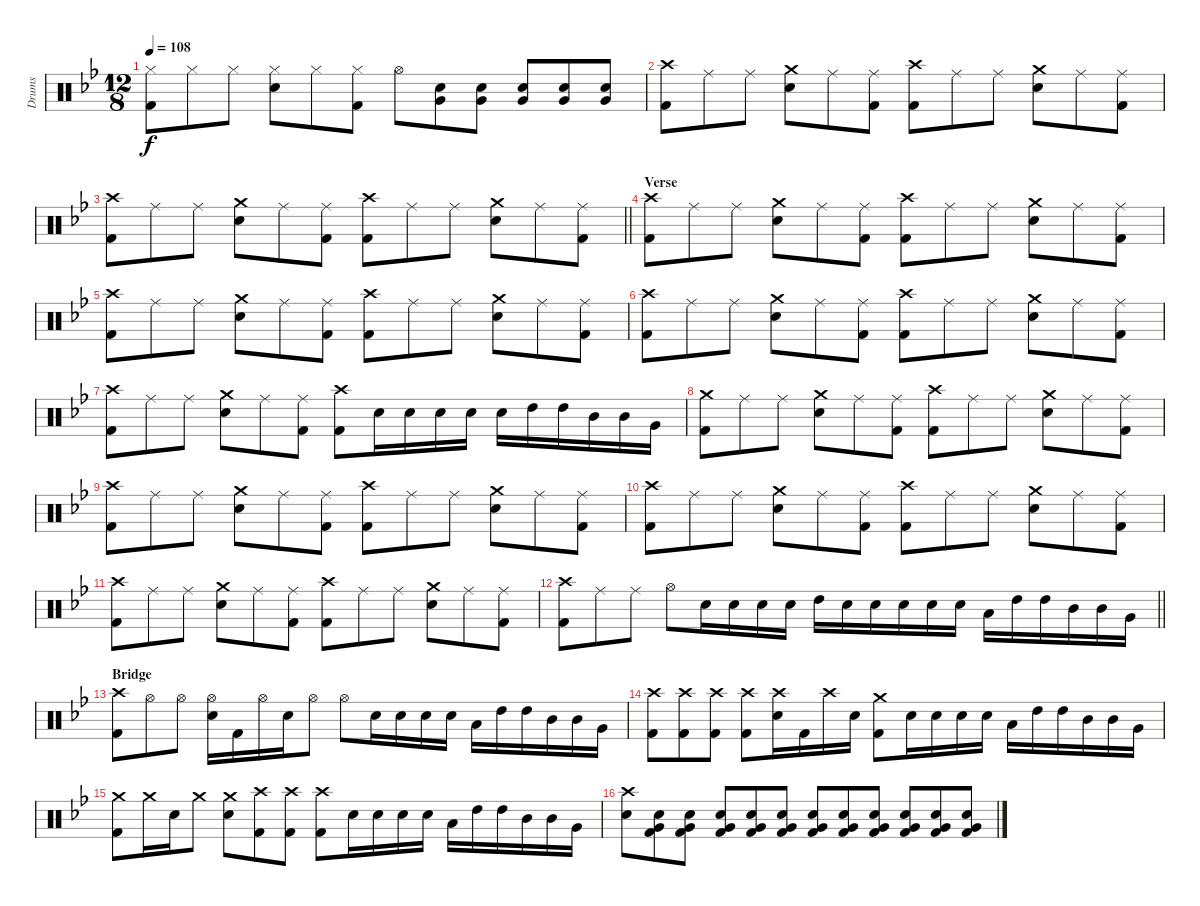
\track ("Drums" "Drums") {instrument percussion}
\staff {score}
\articulation defaults
\ts (12 8)
\tempo 108
\clef neutral
\ks gminor
("Hi-Hat (closed)" "Kick (hit) 2").8{dy f} "Hi-Hat (closed)".8 "Hi-Hat (closed)".8 ("Hi-Hat (closed)" "Electric Snare (hit)").8 "Hi-Hat (closed)".8 ("Hi-Hat (closed)" "Kick (hit) 2").8 "Hi-Hat (open)".8 ("Electric Snare (hit)" "Very Low Tom (hit)").8 ("Electric Snare (hit)" "Very Low Tom (hit)").8 ("Electric Snare (hit)" "Very Low Tom (hit)").8 ("Electric Snare (hit)" "Very Low Tom (hit)").8 ("Electric Snare (hit)" "Very Low Tom (hit)").8 |
("Crash high (hit)" "Kick (hit) 2").8 "Ride (middle)".8 "Ride (middle)".8 ("Crash medium (hit)" "Electric Snare (hit)").8 "Ride (middle)".8 ("Ride (middle)" "Kick (hit) 2").8 ("Crash high (hit)" "Kick (hit) 2").8 "Ride (middle)".8 "Ride (middle)".8 ("Crash medium (hit)" "Electric Snare (hit)").8 "Ride (middle)".8 ("Ride (middle)" "Kick (hit) 2").8 |
\barLineRight lightlight
("Crash high (hit)" "Kick (hit) 2").8 "Ride (middle)".8 "Ride (middle)".8 ("Crash medium (hit)" "Electric Snare (hit)").8 "Ride (middle)".8 ("Ride (middle)" "Kick (hit) 2").8 ("Crash high (hit)" "Kick (hit) 2").8 "Ride (middle)".8 "Ride (middle)".8 ("Crash medium (hit)" "Electric Snare (hit)").8 "Ride (middle)".8 ("Ride (middle)" "Kick (hit) 2").8 |
\section ("" "Verse")
("Crash high (hit)" "Kick (hit) 2").8 "Ride (middle)".8 "Ride (middle)".8 ("Crash medium (hit)" "Electric Snare (hit)").8 "Ride (middle)".8 ("Ride (middle)" "Kick (hit) 2").8 ("Crash high (hit)" "Kick (hit) 2").8 "Ride (middle)".8 "Ride (middle)".8 ("Crash medium (hit)" "Electric Snare (hit)").8 "Ride (middle)".8 ("Ride (middle)" "Kick (hit) 2").8 |
("Crash high (hit)" "Kick (hit) 2").8 "Ride (middle)".8 "Ride (middle)".8 ("Crash medium (hit)" "Electric Snare (hit)").8 "Ride (middle)".8 ("Ride (middle)" "Kick (hit) 2").8 ("Crash high (hit)" "Kick (hit) 2").8 "Ride (middle)".8 "Ride (middle)".8 ("Crash medium (hit)" "Electric Snare (hit)").8 "Ride (middle)".8 ("Ride (middle)" "Kick (hit) 2").8 |
("Crash high (hit)" "Kick (hit) 2").8 "Ride (middle)".8 "Ride (middle)".8 ("Crash medium (hit)" "Electric Snare (hit)").8 "Ride (middle)".8 ("Ride (middle)" "Kick (hit) 2").8 ("Crash high (hit)" "Kick (hit) 2").8 "Ride (middle)".8 "Ride (middle)".8 ("Crash medium (hit)" "Electric Snare (hit)").8 "Ride (middle)".8 ("Ride (middle)" "Kick (hit) 2").8 |
("Crash high (hit)" "Kick (hit) 2").8 "Ride (middle)".8 "Ride (middle)".8 ("Crash medium (hit)" "Electric Snare (hit)").8 "Ride (middle)".8 ("Ride (middle)" "Kick (hit) 2").8 ("Crash high (hit)" "Kick (hit) 2").8 "Electric Snare (hit)".16 "Electric Snare (hit)".16 "Electric Snare (hit)".16 "Electric Snare (hit)".16 "Electric Snare (hit)".16 "High Tom (hit)".16 "High Tom (hit)".16 "Mid Tom (hit)".16 "Mid Tom (hit)".16 "Very Low Tom (hit)".16 |
("Crash medium (hit)" "Kick (hit) 2").8 "Ride (middle)".8 "Ride (middle)".8 ("Crash medium (hit)" "Electric Snare (hit)").8 "Ride (middle)".8 ("Ride (middle)" "Kick (hit) 2").8 ("Crash high (hit)" "Kick (hit) 2").8 "Ride (middle)".8 "Ride (middle)".8 ("Crash medium (hit)" "Electric Snare (hit)").8 "Ride (middle)".8 ("Ride (middle)" "Kick (hit) 2").8 |
("Crash high (hit)" "Kick (hit) 2").8 "Ride (middle)".8 "Ride (middle)".8 ("Crash medium (hit)" "Electric Snare (hit)").8 "Ride (middle)".8 ("Ride (middle)" "Kick (hit) 2").8 ("Crash high (hit)" "Kick (hit) 2").8 "Ride (middle)".8 "Ride (middle)".8 ("Crash medium (hit)" "Electric Snare (hit)").8 "Ride (middle)".8 ("Ride (middle)" "Kick (hit) 2").8 |
("Crash high (hit)" "Kick (hit) 2").8 "Ride (middle)".8 "Ride (middle)".8 ("Crash medium (hit)" "Electric Snare (hit)").8 "Ride (middle)".8 ("Ride (middle)" "Kick (hit) 2").8 ("Crash high (hit)" "Kick (hit) 2").8 "Ride (middle)".8 "Ride (middle)".8 ("Crash medium (hit)" "Electric Snare (hit)").8 "Ride (middle)".8 ("Ride (middle)" "Kick (hit) 2").8 |
("Crash high (hit)" "Kick (hit) 2").8 "Ride (middle)".8 "Ride (middle)".8 ("Crash medium (hit)" "Electric Snare (hit)").8 "Ride (middle)".8 ("Ride (middle)" "Kick (hit) 2").8 ("Crash high (hit)" "Kick (hit) 2").8 "Ride (middle)".8 "Ride (middle)".8 ("Crash medium (hit)" "Electric Snare (hit)").8 "Ride (middle)".8 ("Ride (middle)" "Kick (hit) 2").8 |
\barLineRight lightlight
("Crash high (hit)" "Kick (hit) 2").8 "Ride (middle)".8 "Ride (middle)".8 "Hi-Hat (open)".8 "Electric Snare (hit)".16 "Electric Snare (hit)".16 "Electric Snare (hit)".16 "Electric Snare (hit)".16 "High Tom (hit)".16 "Electric Snare (hit)".16 "Electric Snare (hit)".16 "Electric Snare (hit)".16 "Electric Snare (hit)".16 "Electric Snare (hit)".16 "Low Tom (hit)".16 "High Tom (hit)".16 "High Tom (hit)".16 "Mid Tom (hit)".16 "Mid Tom (hit)".16 "Very Low Tom (hit)".16 |
\section ("" "Bridge")
("Crash high (hit)" "Kick (hit) 2").8 "Hi-Hat (open)".8 "Hi-Hat (open)".8 ("Hi-Hat (open)" "Electric Snare (hit)").16 "Kick (hit) 2".16 "Hi-Hat (open)".16 "Electric Snare (hit)".16 "Hi-Hat (open)".8 "Hi-Hat (open)".8 "Electric Snare (hit)".16 "Electric Snare (hit)".16 "Electric Snare (hit)".16 "Electric Snare (hit)".16 "Low Tom (hit)".16 "High Tom (hit)".16 "High Tom (hit)".16 "Mid Tom (hit)".16 "Mid Tom (hit)".16 "Very Low Tom (hit)".16 |
("Crash high (hit)" "Kick (hit) 2").8 ("Crash high (hit)" "Kick (hit) 2").8 ("Crash high (hit)" "Kick (hit) 2").8 ("Crash high (hit)" "Kick (hit) 2").8 ("Crash high (hit)" "Electric Snare (hit)").16 "Kick (hit) 2".16 "Crash high (hit)".16 "Electric Snare (hit)".16 ("Crash medium (hit)" "Kick (hit) 2").8 "Electric Snare (hit)".16 "Electric Snare (hit)".16 "Electric Snare (hit)".16 "Electric Snare (hit)".16 "Low Tom (hit)".16 "High Tom (hit)".16 "High Tom (hit)".16 "Mid Tom (hit)".16 "Mid Tom (hit)".16 "Very Low Tom (hit)".16 |
("Crash medium (hit)" "Kick (hit) 2").8 "Crash medium (hit)".16 "Electric Snare (hit)".16 "Crash medium (hit)".8 ("Crash medium (hit)" "Electric Snare (hit)").8 ("Crash high (hit)" "Kick (hit) 2").8 ("Crash high (hit)" "Kick (hit) 2").8 ("Crash high (hit)" "Kick (hit) 2").8 "Electric Snare (hit)".16 "Electric Snare (hit)".16 "Electric Snare (hit)".16 "Electric Snare (hit)".16 "Low Tom (hit)".16 "High Tom (hit)".16 "High Tom (hit)".16 "Mid Tom (hit)".16 "Mid Tom (hit)".16 "Very Low Tom (hit)".16 |
("Crash high (hit)" "Electric Snare (hit)").8 ("Electric Snare (hit)" "Very Low Tom (hit)" "Kick (hit) 2").8 ("Electric Snare (hit)" "Very Low Tom (hit)" "Kick (hit) 2").8 ("Electric Snare (hit)" "Very Low Tom (hit)" "Kick (hit) 2").8 ("Electric Snare (hit)" "Very Low Tom (hit)" "Kick (hit) 2").8 ("Electric Snare (hit)" "Very Low Tom (hit)" "Kick (hit) 2").8 ("Electric Snare (hit)" "Very Low Tom (hit)" "Kick (hit) 2").8 ("Electric Snare (hit)" "Very Low Tom (hit)" "Kick (hit) 2").8 ("Electric Snare (hit)" "Very Low Tom (hit)" "Kick (hit) 2").8 ("Electric Snare (hit)" "Very Low Tom (hit)" "Kick (hit) 2").8 ("Electric Snare (hit)" "Very Low Tom (hit)" "Kick (hit) 2").8 ("Electric Snare (hit)" "Very Low Tom (hit)" "Kick (hit) 2").8
